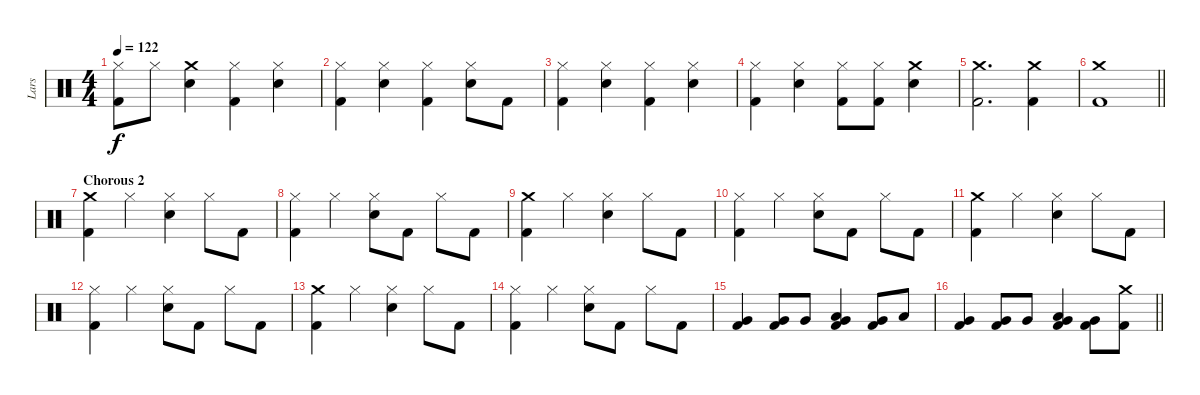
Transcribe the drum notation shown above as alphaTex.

\track ("Lars" "Lars") {instrument percussion}
\staff {score}
\articulation defaults
\ts (4 4)
\tempo 122
\clef neutral
\ks c
("Hi-Hat (closed)" "Kick (hit) 2").8{dy f} "Hi-Hat (closed)".8 ("Crash medium (hit)" "Snare (hit) 2").4 ("Hi-Hat (closed)" "Kick (hit) 2").4 ("Hi-Hat (closed)" "Snare (hit) 2").4 |
("Hi-Hat (closed)" "Kick (hit) 2").4 ("Hi-Hat (closed)" "Snare (hit) 2").4 ("Hi-Hat (closed)" "Kick (hit) 2").4 ("Hi-Hat (closed)" "Snare (hit) 2").8 "Kick (hit) 2".8 |
("Hi-Hat (closed)" "Kick (hit) 2").4 ("Hi-Hat (closed)" "Snare (hit) 2").4 ("Hi-Hat (closed)" "Kick (hit) 2").4 ("Hi-Hat (closed)" "Snare (hit) 2").4 |
("Hi-Hat (closed)" "Kick (hit) 2").4 ("Hi-Hat (closed)" "Snare (hit) 2").4 ("Hi-Hat (closed)" "Kick (hit) 2").8 ("Hi-Hat (closed)" "Kick (hit) 2").8 ("Crash medium (hit)" "Snare (hit) 2").4 |
("Crash medium (hit)" "Kick (hit) 2").2{d} ("Crash medium (hit)" "Kick (hit) 2").4 |
\barLineRight lightlight
("Crash medium (hit)" "Kick (hit) 2").1 |
\section ("" "Chorous 2")
("Crash medium (hit)" "Kick (hit) 2").4 "Hi-Hat (closed)".4 ("Hi-Hat (closed)" "Snare (hit) 2").4 "Hi-Hat (closed)".8 "Kick (hit) 2".8 |
("Hi-Hat (closed)" "Kick (hit) 2").4 "Hi-Hat (closed)".4 ("Hi-Hat (closed)" "Snare (hit) 2").8 "Kick (hit) 2".8 "Hi-Hat (closed)".8 "Kick (hit) 2".8 |
("Crash medium (hit)" "Kick (hit) 2").4 "Hi-Hat (closed)".4 ("Hi-Hat (closed)" "Snare (hit) 2").4 "Hi-Hat (closed)".8 "Kick (hit) 2".8 |
("Hi-Hat (closed)" "Kick (hit) 2").4 "Hi-Hat (closed)".4 ("Hi-Hat (closed)" "Snare (hit) 2").8 "Kick (hit) 2".8 "Hi-Hat (closed)".8 "Kick (hit) 2".8 |
("Crash medium (hit)" "Kick (hit) 2").4 "Hi-Hat (closed)".4 ("Hi-Hat (closed)" "Snare (hit) 2").4 "Hi-Hat (closed)".8 "Kick (hit) 2".8 |
("Hi-Hat (closed)" "Kick (hit) 2").4 "Hi-Hat (closed)".4 ("Hi-Hat (closed)" "Snare (hit) 2").8 "Kick (hit) 2".8 "Hi-Hat (closed)".8 "Kick (hit) 2".8 |
("Crash medium (hit)" "Kick (hit) 2").4 "Hi-Hat (closed)".4 ("Hi-Hat (closed)" "Snare (hit) 2").4 "Hi-Hat (closed)".8 "Kick (hit) 2".8 |
("Hi-Hat (closed)" "Kick (hit) 2").4 "Hi-Hat (closed)".4 ("Hi-Hat (closed)" "Snare (hit) 2").8 "Kick (hit) 2".8 "Hi-Hat (closed)".8 "Kick (hit) 2".8 |
("Very Low Tom (hit)" "Kick (hit) 2").4 ("Very Low Tom (hit)" "Kick (hit) 2").8 "Very Low Tom (hit)".8 ("Very Low Tom (hit)" "Kick (hit) 2" "Low Tom (hit)").4 ("Very Low Tom (hit)" "Kick (hit) 2").8 "Low Tom (hit)".8 |
\barLineRight lightlight
("Very Low Tom (hit)" "Kick (hit) 2").4 ("Very Low Tom (hit)" "Kick (hit) 2").8 "Very Low Tom (hit)".8 ("Very Low Tom (hit)" "Kick (hit) 2" "Low Tom (hit)").4 ("Very Low Tom (hit)" "Kick (hit) 2").8 ("Crash medium (hit)" "Kick (hit) 2").8
